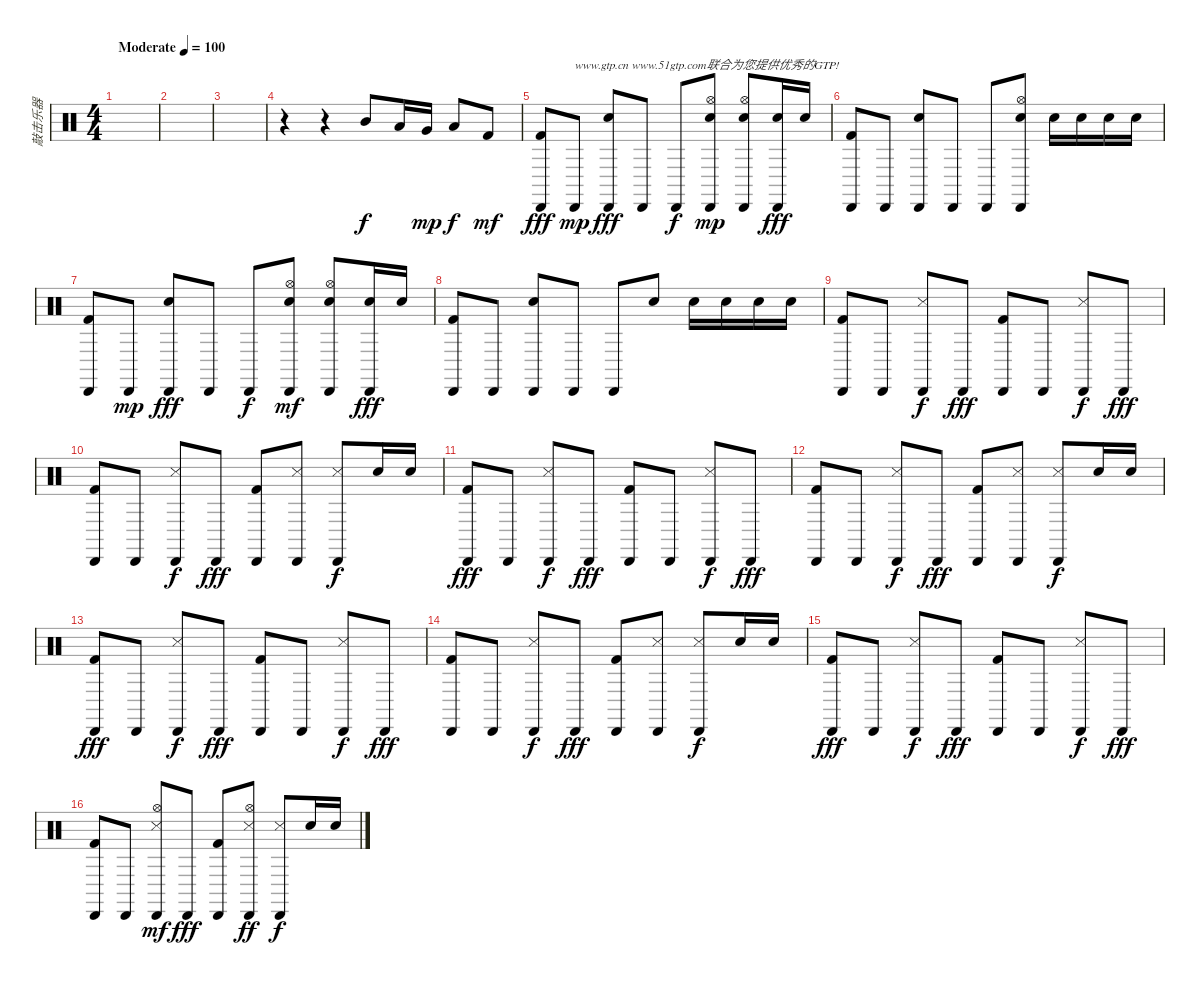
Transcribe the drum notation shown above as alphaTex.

\track ("敲击乐器" "敲击乐器") {instrument percussion}
\staff {score}
\articulation defaults
\ts (4 4)
\tempo (100 "Moderate")
\clef neutral
\ks c
|
|
|
r.4 r.4 "Mid Tom (hit)".8 "Low Tom (hit)".16{dy f} "Very Low Tom (hit)".16{dy mp} "Low Floor Tom (hit)".8{dy f} "Kick (hit) 2".8{dy mf} |
("Kick (hit) 2" "Cabasa (hit)").8{dy fff} "Cabasa (hit)".8{txt "www.gtp.cn www.51gtp.com联合为您提供优秀的GTP!" dy mp} ("Cabasa (hit)" "Snare (hit) 2").8{dy fff} "Cabasa (hit)".8 "Cabasa (hit)".8{dy f} ("Cabasa (hit)" "Snare (hit) 2" "Hi-Hat (open)").8{dy mp} ("Cabasa (hit)" "Snare (hit) 2" "Hi-Hat (open)").8 ("Cabasa (hit)" "Snare (hit) 2").16{dy fff} "Snare (hit) 2".16 |
("Kick (hit) 2" "Cabasa (hit)").8 "Cabasa (hit)".8 ("Cabasa (hit)" "Snare (hit) 2").8 "Cabasa (hit)".8 "Cabasa (hit)".8 ("Cabasa (hit)" "Snare (hit) 2" "Hi-Hat (open)").8 "Snare (hit) 2".16 "Snare (hit) 2".16 "Snare (hit) 2".16 "Snare (hit) 2".16 |
("Kick (hit) 2" "Cabasa (hit)").8 "Cabasa (hit)".8{dy mp} ("Cabasa (hit)" "Snare (hit) 2").8{dy fff} "Cabasa (hit)".8 "Cabasa (hit)".8{dy f} ("Cabasa (hit)" "Snare (hit) 2" "Hi-Hat (open)").8{dy mf} ("Cabasa (hit)" "Snare (hit) 2" "Hi-Hat (open)").8 ("Cabasa (hit)" "Snare (hit) 2").16{dy fff} "Snare (hit) 2".16 |
("Kick (hit) 2" "Cabasa (hit)").8 "Cabasa (hit)".8 ("Cabasa (hit)" "Snare (hit) 2").8 "Cabasa (hit)".8 "Cabasa (hit)".8 "Snare (hit) 2".8 "Snare (hit) 2".16 "Snare (hit) 2".16 "Snare (hit) 2".16 "Snare (hit) 2".16 |
("Cabasa (hit)" "Kick (hit) 2").8 "Cabasa (hit)".8 ("Cabasa (hit)" "Snare (side stick) 3").8{dy f} "Cabasa (hit)".8{dy fff} ("Cabasa (hit)" "Kick (hit) 2").8 "Cabasa (hit)".8 ("Cabasa (hit)" "Snare (side stick) 3").8{dy f} "Cabasa (hit)".8{dy fff} |
("Cabasa (hit)" "Kick (hit) 2").8 "Cabasa (hit)".8 ("Cabasa (hit)" "Snare (side stick) 3").8{dy f} "Cabasa (hit)".8{dy fff} ("Cabasa (hit)" "Kick (hit) 2").8 ("Cabasa (hit)" "Snare (side stick) 3").8 ("Cabasa (hit)" "Snare (side stick) 3").8{dy f} "Electric Snare (hit)".16 "Snare (hit) 2".16 |
("Cabasa (hit)" "Kick (hit) 2").8{dy fff} "Cabasa (hit)".8 ("Cabasa (hit)" "Snare (side stick) 3").8{dy f} "Cabasa (hit)".8{dy fff} ("Cabasa (hit)" "Kick (hit) 2").8 "Cabasa (hit)".8 ("Cabasa (hit)" "Snare (side stick) 3").8{dy f} "Cabasa (hit)".8{dy fff} |
("Cabasa (hit)" "Kick (hit) 2").8 "Cabasa (hit)".8 ("Cabasa (hit)" "Snare (side stick) 3").8{dy f} "Cabasa (hit)".8{dy fff} ("Cabasa (hit)" "Kick (hit) 2").8 ("Cabasa (hit)" "Snare (side stick) 3").8 ("Cabasa (hit)" "Snare (side stick) 3").8{dy f} "Electric Snare (hit)".16 "Snare (hit) 2".16 |
("Cabasa (hit)" "Kick (hit) 2").8{dy fff} "Cabasa (hit)".8 ("Cabasa (hit)" "Snare (side stick) 3").8{dy f} "Cabasa (hit)".8{dy fff} ("Cabasa (hit)" "Kick (hit) 2").8 "Cabasa (hit)".8 ("Cabasa (hit)" "Snare (side stick) 3").8{dy f} "Cabasa (hit)".8{dy fff} |
("Cabasa (hit)" "Kick (hit) 2").8 "Cabasa (hit)".8 ("Cabasa (hit)" "Snare (side stick) 3").8{dy f} "Cabasa (hit)".8{dy fff} ("Cabasa (hit)" "Kick (hit) 2").8 ("Cabasa (hit)" "Snare (side stick) 3").8 ("Cabasa (hit)" "Snare (side stick) 3").8{dy f} "Electric Snare (hit)".16 "Snare (hit) 2".16 |
("Cabasa (hit)" "Kick (hit) 2").8{dy fff} "Cabasa (hit)".8 ("Cabasa (hit)" "Snare (side stick) 3").8{dy f} "Cabasa (hit)".8{dy fff} ("Cabasa (hit)" "Kick (hit) 2").8 "Cabasa (hit)".8 ("Cabasa (hit)" "Snare (side stick) 3").8{dy f} "Cabasa (hit)".8{dy fff} |
("Cabasa (hit)" "Kick (hit) 2").8 "Cabasa (hit)".8 ("Cabasa (hit)" "Snare (side stick) 3" "Hi-Hat (open)").8{dy mf} "Cabasa (hit)".8{dy fff} ("Cabasa (hit)" "Kick (hit) 2").8 ("Cabasa (hit)" "Snare (side stick) 3" "Hi-Hat (open)").8{dy ff} ("Cabasa (hit)" "Snare (side stick) 3").8{dy f} "Electric Snare (hit)".16 "Snare (hit) 2".16
